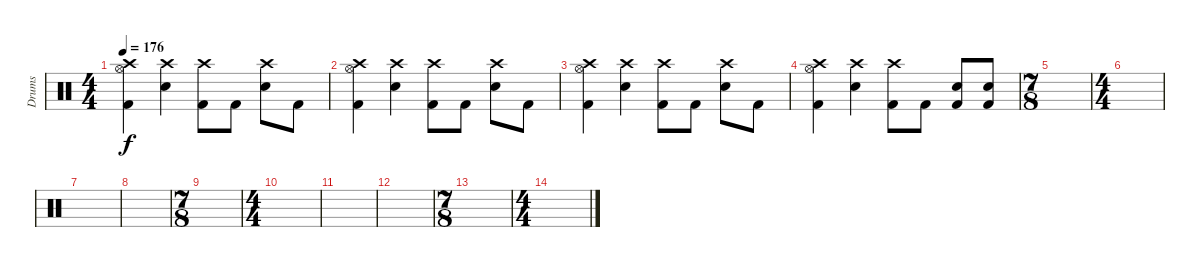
\track ("Drums" "Drums") {instrument percussion}
\staff {score}
\articulation defaults
\ts (4 4)
\tempo 176
\clef neutral
\ks c
("Kick (hit) 2" "Hi-Hat (open)" "Crash high (hit)").4{dy f} ("Snare (hit) 2" "Crash high (hit)").4 ("Kick (hit) 2" "Crash high (hit)").8 "Kick (hit) 2".8 ("Snare (hit) 2" "Crash high (hit)").8 "Kick (hit) 2".8 |
("Kick (hit) 2" "Hi-Hat (open)" "Crash high (hit)").4 ("Snare (hit) 2" "Crash high (hit)").4 ("Kick (hit) 2" "Crash high (hit)").8 "Kick (hit) 2".8 ("Snare (hit) 2" "Crash high (hit)").8 "Kick (hit) 2".8 |
("Kick (hit) 2" "Hi-Hat (open)" "Crash high (hit)").4 ("Snare (hit) 2" "Crash high (hit)").4 ("Kick (hit) 2" "Crash high (hit)").8 "Kick (hit) 2".8 ("Snare (hit) 2" "Crash high (hit)").8 "Kick (hit) 2".8 |
("Kick (hit) 2" "Hi-Hat (open)" "Crash high (hit)").4 ("Snare (hit) 2" "Crash high (hit)").4 ("Kick (hit) 2" "Crash high (hit)").8 "Kick (hit) 2".8 ("Kick (hit) 2" "Snare (hit) 2").8 ("Kick (hit) 2" "Snare (hit) 2").8 |
\ts (7 8)
|
\ts (4 4)
|
|
|
\ts (7 8)
|
\ts (4 4)
|
|
|
\ts (7 8)
|
\ts (4 4)
